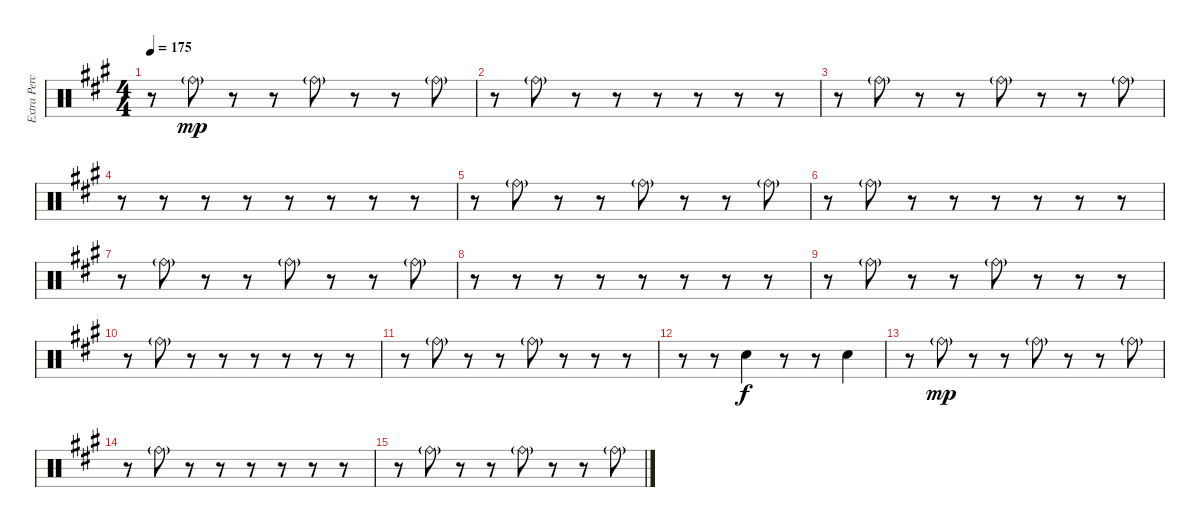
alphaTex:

\track ("Extra Percussion" "Extra Perc") {instrument percussion}
\staff {score}
\articulation defaults
\ts (4 4)
\tempo 175
\clef neutral
\ks f#minor
r.8{dy mp} "Ride (bell)"{g}.8 r.8 r.8 "Ride (bell)"{g}.8 r.8 r.8 "Ride (bell)"{g}.8 |
r.8 "Ride (bell)"{g}.8 r.8 r.8 r.8 r.8 r.8 r.8 |
r.8 "Ride (bell)"{g}.8 r.8 r.8 "Ride (bell)"{g}.8 r.8 r.8 "Ride (bell)"{g}.8 |
r.8 r.8 r.8 r.8 r.8 r.8 r.8 r.8 |
r.8 "Ride (bell)"{g}.8 r.8 r.8 "Ride (bell)"{g}.8 r.8 r.8 "Ride (bell)"{g}.8 |
r.8 "Ride (bell)"{g}.8 r.8 r.8 r.8 r.8 r.8 r.8 |
r.8 "Ride (bell)"{g}.8 r.8 r.8 "Ride (bell)"{g}.8 r.8 r.8 "Ride (bell)"{g}.8 |
r.8 r.8 r.8 r.8 r.8 r.8 r.8 r.8 |
r.8 "Ride (bell)"{g}.8 r.8 r.8 "Ride (bell)"{g}.8 r.8 r.8 r.8 |
r.8 "Ride (bell)"{g}.8 r.8 r.8 r.8 r.8 r.8 r.8 |
r.8 "Ride (bell)"{g}.8 r.8 r.8 "Ride (bell)"{g}.8 r.8 r.8 r.8 |
r.8 r.8 "Snare (hit) 2".4{dy f} r.8 r.8 "Snare (hit) 2".4 |
r.8 "Ride (bell)"{g}.8{dy mp} r.8 r.8 "Ride (bell)"{g}.8 r.8 r.8 "Ride (bell)"{g}.8 |
r.8 "Ride (bell)"{g}.8 r.8 r.8 r.8 r.8 r.8 r.8 |
r.8 "Ride (bell)"{g}.8 r.8 r.8 "Ride (bell)"{g}.8 r.8 r.8 "Ride (bell)"{g}.8
